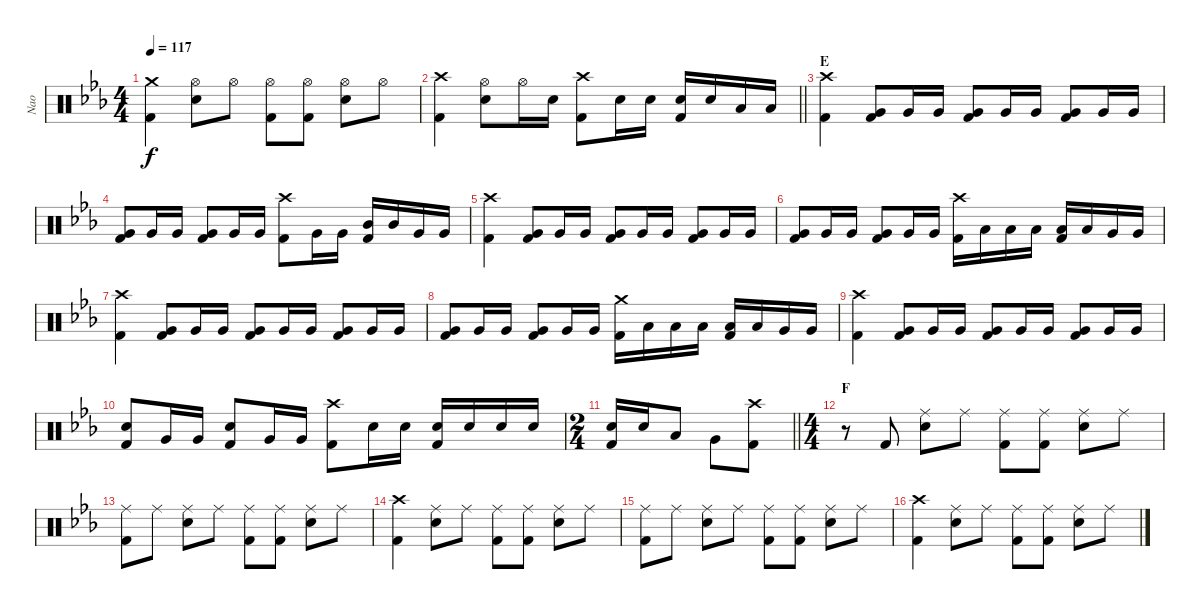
\track ("Nao" "Nao") {instrument percussion}
\staff {score}
\articulation defaults
\ts (4 4)
\tempo 117
\clef neutral
\ks eb
("Crash medium (hit)" "Kick (hit) 2").4{dy f} ("Hi-Hat (open)" "Snare (hit) 2").8 "Hi-Hat (open)".8 ("Hi-Hat (open)" "Kick (hit) 2").8 ("Hi-Hat (open)" "Kick (hit) 2").8 ("Hi-Hat (open)" "Snare (hit) 2").8 "Hi-Hat (open)".8 |
\barLineRight lightlight
("Crash high (hit)" "Kick (hit) 2").4 ("Hi-Hat (open)" "Snare (hit) 2").8 "Hi-Hat (open)".16 "Snare (hit) 2".16 ("Crash high (hit)" "Kick (hit) 2").8 "Snare (hit) 2".16 "Snare (hit) 2".16 ("Snare (hit) 2" "Kick (hit) 2").16 "Snare (hit) 2".16 "Low Tom (hit)".16 "Low Tom (hit)".16 |
\section ("" "E")
("Crash high (hit)" "Kick (hit) 2").4 ("Very Low Tom (hit)" "Kick (hit) 2").8 "Very Low Tom (hit)".16 "Very Low Tom (hit)".16 ("Very Low Tom (hit)" "Kick (hit) 2").8 "Very Low Tom (hit)".16 "Very Low Tom (hit)".16 ("Very Low Tom (hit)" "Kick (hit) 2").8 "Very Low Tom (hit)".16 "Very Low Tom (hit)".16 |
("Very Low Tom (hit)" "Kick (hit) 2").8 "Very Low Tom (hit)".16 "Very Low Tom (hit)".16 ("Very Low Tom (hit)" "Kick (hit) 2").8 "Very Low Tom (hit)".16 "Very Low Tom (hit)".16 ("Crash high (hit)" "Kick (hit) 2").8 "Very Low Tom (hit)".16 "Very Low Tom (hit)".16 ("Mid Tom (hit)" "Kick (hit) 2").16 "Mid Tom (hit)".16 "Very Low Tom (hit)".16 "Very Low Tom (hit)".16 |
("Crash high (hit)" "Kick (hit) 2").4 ("Very Low Tom (hit)" "Kick (hit) 2").8 "Very Low Tom (hit)".16 "Very Low Tom (hit)".16 ("Very Low Tom (hit)" "Kick (hit) 2").8 "Very Low Tom (hit)".16 "Very Low Tom (hit)".16 ("Very Low Tom (hit)" "Kick (hit) 2").8 "Very Low Tom (hit)".16 "Very Low Tom (hit)".16 |
("Very Low Tom (hit)" "Kick (hit) 2").8 "Very Low Tom (hit)".16 "Very Low Tom (hit)".16 ("Very Low Tom (hit)" "Kick (hit) 2").8 "Very Low Tom (hit)".16 "Very Low Tom (hit)".16 ("Crash high (hit)" "Kick (hit) 2").16 "Low Tom (hit)".16 "Low Tom (hit)".16 "Low Tom (hit)".16 ("Low Tom (hit)" "Kick (hit) 2").16 "Low Tom (hit)".16 "Very Low Tom (hit)".16 "Very Low Tom (hit)".16 |
("Crash high (hit)" "Kick (hit) 2").4 ("Very Low Tom (hit)" "Kick (hit) 2").8 "Very Low Tom (hit)".16 "Very Low Tom (hit)".16 ("Very Low Tom (hit)" "Kick (hit) 2").8 "Very Low Tom (hit)".16 "Very Low Tom (hit)".16 ("Very Low Tom (hit)" "Kick (hit) 2").8 "Very Low Tom (hit)".16 "Very Low Tom (hit)".16 |
("Very Low Tom (hit)" "Kick (hit) 2").8 "Very Low Tom (hit)".16 "Very Low Tom (hit)".16 ("Very Low Tom (hit)" "Kick (hit) 2").8 "Very Low Tom (hit)".16 "Very Low Tom (hit)".16 ("Crash medium (hit)" "Kick (hit) 2").16 "Low Tom (hit)".16 "Low Tom (hit)".16 "Low Tom (hit)".16 ("Low Tom (hit)" "Kick (hit) 2").16 "Low Tom (hit)".16 "Very Low Tom (hit)".16 "Very Low Tom (hit)".16 |
("Crash high (hit)" "Kick (hit) 2").4 ("Very Low Tom (hit)" "Kick (hit) 2").8 "Very Low Tom (hit)".16 "Very Low Tom (hit)".16 ("Very Low Tom (hit)" "Kick (hit) 2").8 "Very Low Tom (hit)".16 "Very Low Tom (hit)".16 ("Very Low Tom (hit)" "Kick (hit) 2").8 "Very Low Tom (hit)".16 "Very Low Tom (hit)".16 |
("Snare (hit) 2" "Kick (hit) 2").8 "Very Low Tom (hit)".16 "Very Low Tom (hit)".16 ("Snare (hit) 2" "Kick (hit) 2").8 "Very Low Tom (hit)".16 "Very Low Tom (hit)".16 ("Crash high (hit)" "Kick (hit) 2").8 "Snare (hit) 2".16 "Snare (hit) 2".16 ("Snare (hit) 2" "Kick (hit) 2").16 "Snare (hit) 2".16 "Snare (hit) 2".16 "Snare (hit) 2".16 |
\ts (2 4)
\barLineRight lightlight
("Snare (hit) 2" "Kick (hit) 2").16 "Snare (hit) 2".16 "Low Tom (hit)".8 "Very Low Tom (hit)".8 ("Crash high (hit)" "Kick (hit) 2").8 |
\ts (4 4)
\section ("" "F")
r.8 "Kick (hit) 2".8 ("Ride (middle)" "Snare (hit) 2").8 "Ride (middle)".8 ("Ride (middle)" "Kick (hit) 2").8 ("Ride (middle)" "Kick (hit) 2").8 ("Ride (middle)" "Snare (hit) 2").8 "Ride (middle)".8 |
("Ride (middle)" "Kick (hit) 2").8 "Ride (middle)".8 ("Ride (middle)" "Snare (hit) 2").8 "Ride (middle)".8 ("Ride (middle)" "Kick (hit) 2").8 ("Ride (middle)" "Kick (hit) 2").8 ("Ride (middle)" "Snare (hit) 2").8 "Ride (middle)".8 |
("Crash high (hit)" "Kick (hit) 2").4 ("Ride (middle)" "Snare (hit) 2").8 "Ride (middle)".8 ("Ride (middle)" "Kick (hit) 2").8 ("Ride (middle)" "Kick (hit) 2").8 ("Ride (middle)" "Snare (hit) 2").8 "Ride (middle)".8 |
("Ride (middle)" "Kick (hit) 2").8 "Ride (middle)".8 ("Ride (middle)" "Snare (hit) 2").8 "Ride (middle)".8 ("Ride (middle)" "Kick (hit) 2").8 ("Ride (middle)" "Kick (hit) 2").8 ("Ride (middle)" "Snare (hit) 2").8 "Ride (middle)".8 |
("Crash high (hit)" "Kick (hit) 2").4 ("Ride (middle)" "Snare (hit) 2").8 "Ride (middle)".8 ("Ride (middle)" "Kick (hit) 2").8 ("Ride (middle)" "Kick (hit) 2").8 ("Ride (middle)" "Snare (hit) 2").8 "Ride (middle)".8
